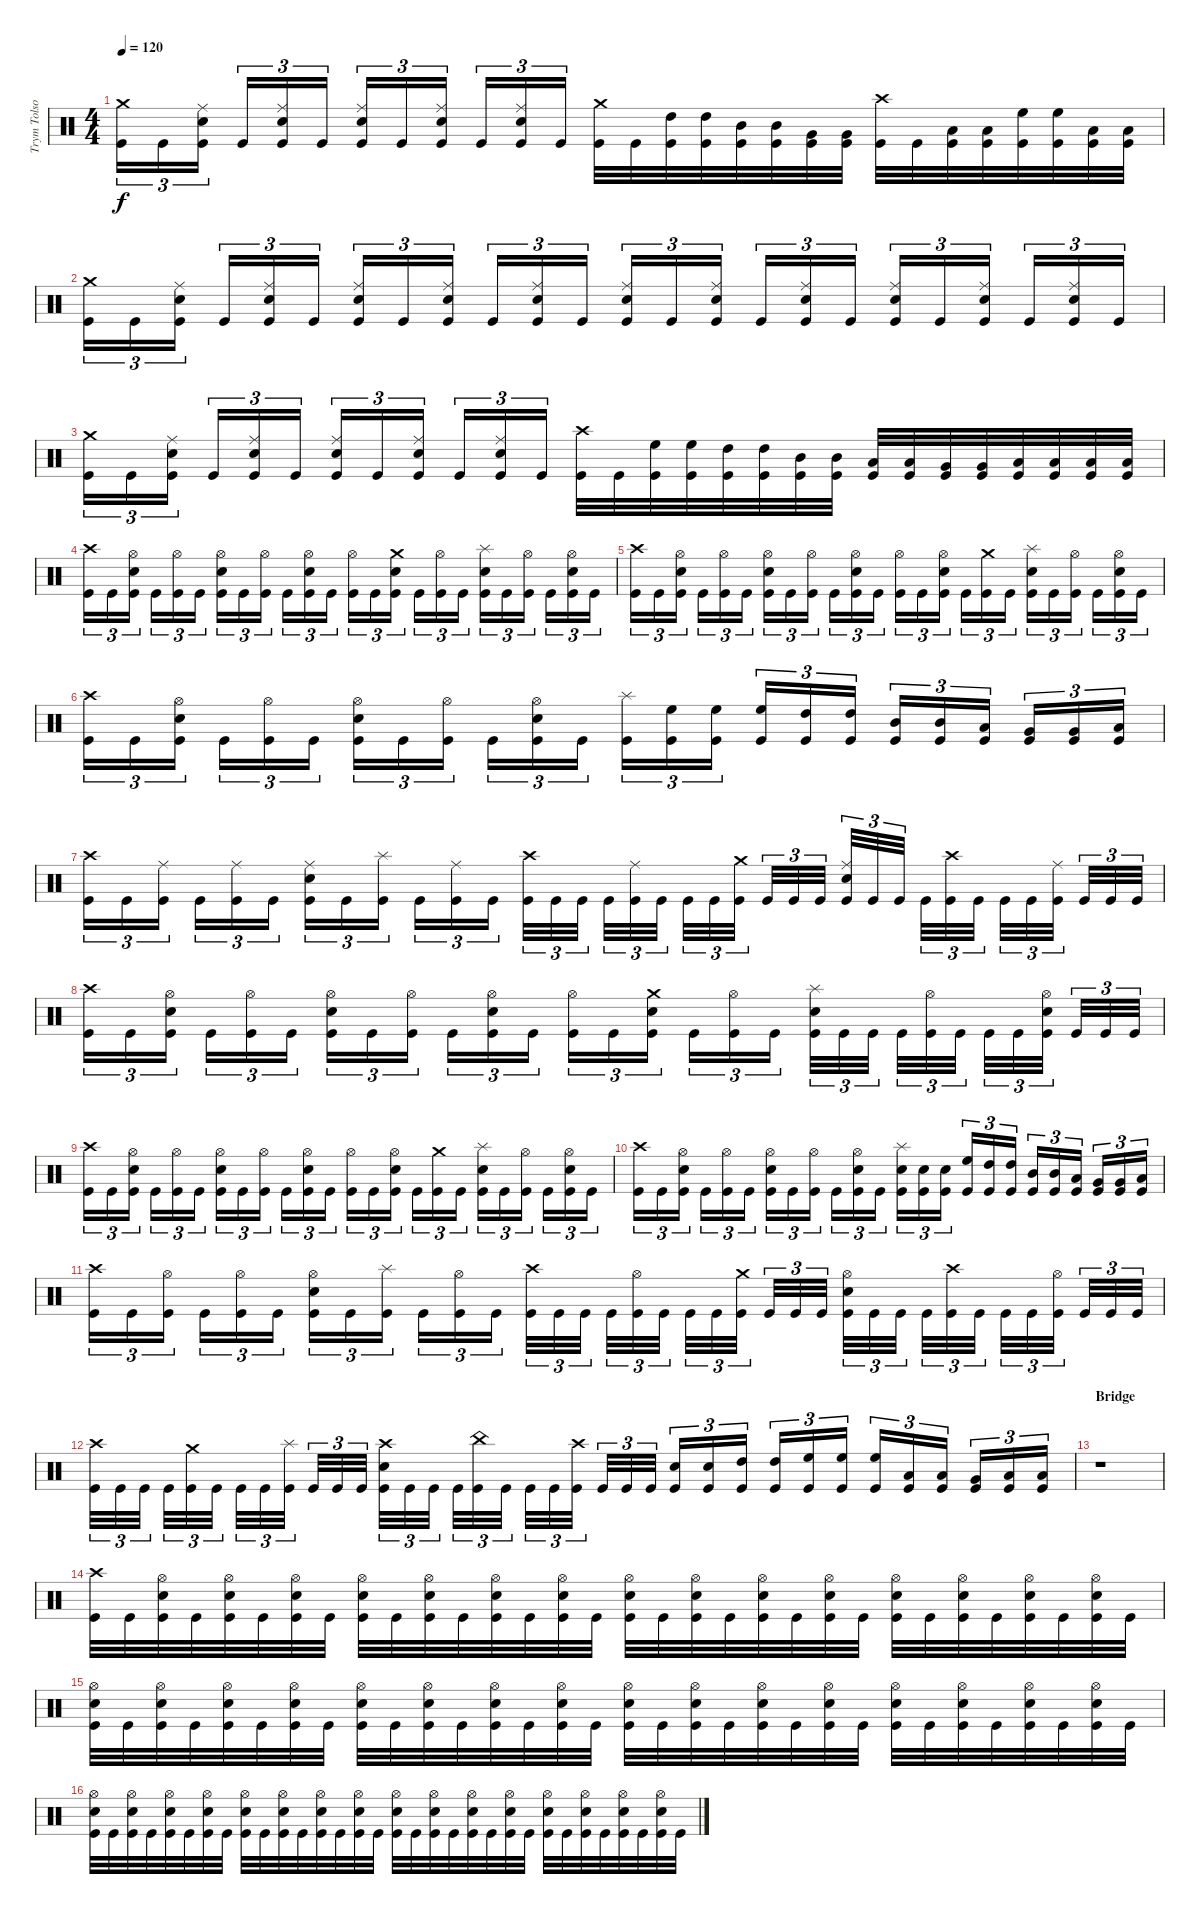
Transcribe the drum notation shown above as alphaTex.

\track ("Trym Tolson" "Trym Tolso") {instrument percussion}
\staff {score}
\articulation defaults
\ts (4 4)
\tempo 120
\clef neutral
\ks c
("Crash medium (hit)" "Kick (hit)").16{tu (3 2) dy f} "Kick (hit)".16{tu (3 2)} ("Ride (middle)" "Electric Snare (hit)" "Kick (hit)").16{tu (3 2)} "Kick (hit)".16{tu (3 2)} ("Ride (middle)" "Electric Snare (hit)" "Kick (hit)").16{tu (3 2)} "Kick (hit)".16{tu (3 2)} ("Ride (middle)" "Electric Snare (hit)" "Kick (hit)").16{tu (3 2)} "Kick (hit)".16{tu (3 2)} ("Ride (middle)" "Electric Snare (hit)" "Kick (hit)").16{tu (3 2)} "Kick (hit)".16{tu (3 2)} ("Ride (middle)" "Electric Snare (hit)" "Kick (hit)").16{tu (3 2)} "Kick (hit)".16{tu (3 2)} ("Crash medium (hit)" "Kick (hit)").32 "Kick (hit)".32 ("High Tom (hit)" "Kick (hit)").32 ("High Tom (hit)" "Kick (hit)").32 ("Mid Tom (hit)" "Kick (hit)").32 ("Mid Tom (hit)" "Kick (hit)").32 ("Very Low Tom (hit)" "Kick (hit)").32 ("Very Low Tom (hit)" "Kick (hit)").32 ("Crash high (hit)" "Kick (hit)").32 "Kick (hit)".32 ("Low Tom (hit)" "Kick (hit)").32 ("Low Tom (hit)" "Kick (hit)").32 ("High Floor Tom (hit)" "Kick (hit)").32 ("High Floor Tom (hit)" "Kick (hit)").32 ("Low Floor Tom (hit)" "Kick (hit)").32 ("Low Floor Tom (hit)" "Kick (hit)").32 |
("Crash medium (hit)" "Kick (hit)").16{tu (3 2)} "Kick (hit)".16{tu (3 2)} ("Ride (middle)" "Electric Snare (hit)" "Kick (hit)").16{tu (3 2)} "Kick (hit)".16{tu (3 2)} ("Ride (middle)" "Electric Snare (hit)" "Kick (hit)").16{tu (3 2)} "Kick (hit)".16{tu (3 2)} ("Ride (middle)" "Electric Snare (hit)" "Kick (hit)").16{tu (3 2)} "Kick (hit)".16{tu (3 2)} ("Ride (middle)" "Electric Snare (hit)" "Kick (hit)").16{tu (3 2)} "Kick (hit)".16{tu (3 2)} ("Ride (middle)" "Electric Snare (hit)" "Kick (hit)").16{tu (3 2)} "Kick (hit)".16{tu (3 2)} ("Ride (middle)" "Electric Snare (hit)" "Kick (hit)").16{tu (3 2)} "Kick (hit)".16{tu (3 2)} ("Ride (middle)" "Electric Snare (hit)" "Kick (hit)").16{tu (3 2)} "Kick (hit)".16{tu (3 2)} ("Ride (middle)" "Electric Snare (hit)" "Kick (hit)").16{tu (3 2)} "Kick (hit)".16{tu (3 2)} ("Ride (middle)" "Electric Snare (hit)" "Kick (hit)").16{tu (3 2)} "Kick (hit)".16{tu (3 2)} ("Ride (middle)" "Electric Snare (hit)" "Kick (hit)").16{tu (3 2)} "Kick (hit)".16{tu (3 2)} ("Ride (middle)" "Electric Snare (hit)" "Kick (hit)").16{tu (3 2)} "Kick (hit)".16{tu (3 2)} |
("Crash medium (hit)" "Kick (hit)").16{tu (3 2)} "Kick (hit)".16{tu (3 2)} ("Ride (middle)" "Electric Snare (hit)" "Kick (hit)").16{tu (3 2)} "Kick (hit)".16{tu (3 2)} ("Ride (middle)" "Electric Snare (hit)" "Kick (hit)").16{tu (3 2)} "Kick (hit)".16{tu (3 2)} ("Ride (middle)" "Electric Snare (hit)" "Kick (hit)").16{tu (3 2)} "Kick (hit)".16{tu (3 2)} ("Ride (middle)" "Electric Snare (hit)" "Kick (hit)").16{tu (3 2)} "Kick (hit)".16{tu (3 2)} ("Ride (middle)" "Electric Snare (hit)" "Kick (hit)").16{tu (3 2)} "Kick (hit)".16{tu (3 2)} ("Crash high (hit)" "Kick (hit)").32 "Kick (hit)".32 ("High Floor Tom (hit)" "Kick (hit)").32 ("High Floor Tom (hit)" "Kick (hit)").32 ("High Tom (hit)" "Kick (hit)").32 ("High Tom (hit)" "Kick (hit)").32 ("Mid Tom (hit)" "Kick (hit)").32 ("Mid Tom (hit)" "Kick (hit)").32 ("Low Tom (hit)" "Kick (hit)").32 ("Low Tom (hit)" "Kick (hit)").32 ("Very Low Tom (hit)" "Kick (hit)").32 ("Very Low Tom (hit)" "Kick (hit)").32 ("Low Floor Tom (hit)" "Kick (hit)").32 ("Low Floor Tom (hit)" "Kick (hit)").32 ("Low Floor Tom (hit)" "Kick (hit)").32 ("Low Floor Tom (hit)" "Kick (hit)").32 |
("Crash high (hit)" "Kick (hit)").16{tu (3 2)} "Kick (hit)".16{tu (3 2)} ("Hi-Hat (open)" "Electric Snare (hit)" "Kick (hit)").16{tu (3 2)} "Kick (hit)".16{tu (3 2)} ("Hi-Hat (open)" "Kick (hit)").16{tu (3 2)} "Kick (hit)".16{tu (3 2)} ("Hi-Hat (open)" "Electric Snare (hit)" "Kick (hit)").16{tu (3 2)} "Kick (hit)".16{tu (3 2)} ("Hi-Hat (open)" "Kick (hit)").16{tu (3 2)} "Kick (hit)".16{tu (3 2)} ("Hi-Hat (open)" "Electric Snare (hit)" "Kick (hit)").16{tu (3 2)} "Kick (hit)".16{tu (3 2)} ("Hi-Hat (open)" "Kick (hit)").16{tu (3 2)} "Kick (hit)".16{tu (3 2)} ("Crash medium (hit)" "Electric Snare (hit)" "Kick (hit)").16{tu (3 2)} "Kick (hit)".16{tu (3 2)} ("Hi-Hat (open)" "Kick (hit)").16{tu (3 2)} "Kick (hit)".16{tu (3 2)} ("Splash (hit)" "Electric Snare (hit)" "Kick (hit)").16{tu (3 2)} "Kick (hit)".16{tu (3 2)} ("Hi-Hat (open)" "Kick (hit)").16{tu (3 2)} "Kick (hit)".16{tu (3 2)} ("Hi-Hat (open)" "Electric Snare (hit)" "Kick (hit)").16{tu (3 2)} "Kick (hit)".16{tu (3 2)} |
("Crash high (hit)" "Kick (hit)").16{tu (3 2)} "Kick (hit)".16{tu (3 2)} ("Hi-Hat (open)" "Electric Snare (hit)" "Kick (hit)").16{tu (3 2)} "Kick (hit)".16{tu (3 2)} ("Hi-Hat (open)" "Kick (hit)").16{tu (3 2)} "Kick (hit)".16{tu (3 2)} ("Hi-Hat (open)" "Electric Snare (hit)" "Kick (hit)").16{tu (3 2)} "Kick (hit)".16{tu (3 2)} ("Hi-Hat (open)" "Kick (hit)").16{tu (3 2)} "Kick (hit)".16{tu (3 2)} ("Hi-Hat (open)" "Electric Snare (hit)" "Kick (hit)").16{tu (3 2)} "Kick (hit)".16{tu (3 2)} ("Hi-Hat (open)" "Kick (hit)").16{tu (3 2)} "Kick (hit)".16{tu (3 2)} ("Hi-Hat (open)" "Electric Snare (hit)" "Kick (hit)").16{tu (3 2)} "Kick (hit)".16{tu (3 2)} ("Crash medium (hit)" "Kick (hit)").16{tu (3 2)} "Kick (hit)".16{tu (3 2)} ("Splash (hit)" "Electric Snare (hit)" "Kick (hit)").16{tu (3 2)} "Kick (hit)".16{tu (3 2)} ("Hi-Hat (open)" "Kick (hit)").16{tu (3 2)} "Kick (hit)".16{tu (3 2)} ("Hi-Hat (open)" "Electric Snare (hit)" "Kick (hit)").16{tu (3 2)} "Kick (hit)".16{tu (3 2)} |
("Crash high (hit)" "Kick (hit)").16{tu (3 2)} "Kick (hit)".16{tu (3 2)} ("Hi-Hat (open)" "Electric Snare (hit)" "Kick (hit)").16{tu (3 2)} "Kick (hit)".16{tu (3 2)} ("Hi-Hat (open)" "Kick (hit)").16{tu (3 2)} "Kick (hit)".16{tu (3 2)} ("Hi-Hat (open)" "Electric Snare (hit)" "Kick (hit)").16{tu (3 2)} "Kick (hit)".16{tu (3 2)} ("Hi-Hat (open)" "Kick (hit)").16{tu (3 2)} "Kick (hit)".16{tu (3 2)} ("Hi-Hat (open)" "Electric Snare (hit)" "Kick (hit)").16{tu (3 2)} "Kick (hit)".16{tu (3 2)} ("Splash (hit)" "Kick (hit)").16{tu (3 2)} ("High Floor Tom (hit)" "Kick (hit)").16{tu (3 2)} ("High Floor Tom (hit)" "Kick (hit)").16{tu (3 2)} ("High Floor Tom (hit)" "Kick (hit)").16{tu (3 2)} ("High Tom (hit)" "Kick (hit)").16{tu (3 2)} ("High Tom (hit)" "Kick (hit)").16{tu (3 2)} ("Mid Tom (hit)" "Kick (hit)").16{tu (3 2)} ("Mid Tom (hit)" "Kick (hit)").16{tu (3 2)} ("Low Tom (hit)" "Kick (hit)").16{tu (3 2)} ("Very Low Tom (hit)" "Kick (hit)").16{tu (3 2)} ("Very Low Tom (hit)" "Kick (hit)").16{tu (3 2)} ("Low Floor Tom (hit)" "Kick (hit)").16{tu (3 2)} |
("Crash high (hit)" "Kick (hit)").16{tu (3 2)} "Kick (hit)".16{tu (3 2)} ("Ride (middle)" "Kick (hit)").16{tu (3 2)} "Kick (hit)".16{tu (3 2)} ("Ride (middle)" "Kick (hit)").16{tu (3 2)} "Kick (hit)".16{tu (3 2)} ("Ride (middle)" "Electric Snare (hit)" "Kick (hit)").16{tu (3 2)} "Kick (hit)".16{tu (3 2)} ("Splash (hit)" "Kick (hit)").16{tu (3 2)} "Kick (hit)".16{tu (3 2)} ("Ride (middle)" "Kick (hit)").16{tu (3 2)} "Kick (hit)".16{tu (3 2)} ("Crash high (hit)" "Kick (hit)").32{tu (3 2)} "Kick (hit)".32{tu (3 2)} "Kick (hit)".32{tu (3 2)} "Kick (hit)".32{tu (3 2)} ("Ride (middle)" "Kick (hit)").32{tu (3 2)} "Kick (hit)".32{tu (3 2)} "Kick (hit)".32{tu (3 2)} "Kick (hit)".32{tu (3 2)} ("Crash medium (hit)" "Kick (hit)").32{tu (3 2)} "Kick (hit)".32{tu (3 2)} "Kick (hit)".32{tu (3 2)} "Kick (hit)".32{tu (3 2)} ("Ride (middle)" "Electric Snare (hit)" "Kick (hit)").32{tu (3 2)} "Kick (hit)".32{tu (3 2)} "Kick (hit)".32{tu (3 2)} "Kick (hit)".32{tu (3 2)} ("Crash high (hit)" "Kick (hit)").32{tu (3 2)} "Kick (hit)".32{tu (3 2)} "Kick (hit)".32{tu (3 2)} "Kick (hit)".32{tu (3 2)} ("Ride (middle)" "Kick (hit)").32{tu (3 2)} "Kick (hit)".32{tu (3 2)} "Kick (hit)".32{tu (3 2)} "Kick (hit)".32{tu (3 2)} |
("Crash high (hit)" "Kick (hit)").16{tu (3 2)} "Kick (hit)".16{tu (3 2)} ("Hi-Hat (open)" "Electric Snare (hit)" "Kick (hit)").16{tu (3 2)} "Kick (hit)".16{tu (3 2)} ("Hi-Hat (open)" "Kick (hit)").16{tu (3 2)} "Kick (hit)".16{tu (3 2)} ("Hi-Hat (open)" "Electric Snare (hit)" "Kick (hit)").16{tu (3 2)} "Kick (hit)".16{tu (3 2)} ("Hi-Hat (open)" "Kick (hit)").16{tu (3 2)} "Kick (hit)".16{tu (3 2)} ("Hi-Hat (open)" "Electric Snare (hit)" "Kick (hit)").16{tu (3 2)} "Kick (hit)".16{tu (3 2)} ("Hi-Hat (open)" "Kick (hit)").16{tu (3 2)} "Kick (hit)".16{tu (3 2)} ("Crash medium (hit)" "Electric Snare (hit)" "Kick (hit)").16{tu (3 2)} "Kick (hit)".16{tu (3 2)} ("Hi-Hat (open)" "Kick (hit)").16{tu (3 2)} "Kick (hit)".16{tu (3 2)} ("Splash (hit)" "Electric Snare (hit)" "Kick (hit)").32{tu (3 2)} "Kick (hit)".32{tu (3 2)} "Kick (hit)".32{tu (3 2)} "Kick (hit)".32{tu (3 2)} ("Hi-Hat (open)" "Kick (hit)").32{tu (3 2)} "Kick (hit)".32{tu (3 2)} "Kick (hit)".32{tu (3 2)} "Kick (hit)".32{tu (3 2)} ("Hi-Hat (open)" "Electric Snare (hit)" "Kick (hit)").32{tu (3 2)} "Kick (hit)".32{tu (3 2)} "Kick (hit)".32{tu (3 2)} "Kick (hit)".32{tu (3 2)} |
("Crash high (hit)" "Kick (hit)").16{tu (3 2)} "Kick (hit)".16{tu (3 2)} ("Hi-Hat (open)" "Electric Snare (hit)" "Kick (hit)").16{tu (3 2)} "Kick (hit)".16{tu (3 2)} ("Hi-Hat (open)" "Kick (hit)").16{tu (3 2)} "Kick (hit)".16{tu (3 2)} ("Hi-Hat (open)" "Electric Snare (hit)" "Kick (hit)").16{tu (3 2)} "Kick (hit)".16{tu (3 2)} ("Hi-Hat (open)" "Kick (hit)").16{tu (3 2)} "Kick (hit)".16{tu (3 2)} ("Hi-Hat (open)" "Electric Snare (hit)" "Kick (hit)").16{tu (3 2)} "Kick (hit)".16{tu (3 2)} ("Hi-Hat (open)" "Kick (hit)").16{tu (3 2)} "Kick (hit)".16{tu (3 2)} ("Hi-Hat (open)" "Electric Snare (hit)" "Kick (hit)").16{tu (3 2)} "Kick (hit)".16{tu (3 2)} ("Crash medium (hit)" "Kick (hit)").16{tu (3 2)} "Kick (hit)".16{tu (3 2)} ("Splash (hit)" "Electric Snare (hit)" "Kick (hit)").16{tu (3 2)} "Kick (hit)".16{tu (3 2)} ("Hi-Hat (open)" "Kick (hit)").16{tu (3 2)} "Kick (hit)".16{tu (3 2)} ("Hi-Hat (open)" "Electric Snare (hit)" "Kick (hit)").16{tu (3 2)} "Kick (hit)".16{tu (3 2)} |
("Crash high (hit)" "Kick (hit)").16{tu (3 2)} "Kick (hit)".16{tu (3 2)} ("Hi-Hat (open)" "Electric Snare (hit)" "Kick (hit)").16{tu (3 2)} "Kick (hit)".16{tu (3 2)} ("Hi-Hat (open)" "Kick (hit)").16{tu (3 2)} "Kick (hit)".16{tu (3 2)} ("Hi-Hat (open)" "Electric Snare (hit)" "Kick (hit)").16{tu (3 2)} "Kick (hit)".16{tu (3 2)} ("Hi-Hat (open)" "Kick (hit)").16{tu (3 2)} "Kick (hit)".16{tu (3 2)} ("Hi-Hat (open)" "Electric Snare (hit)" "Kick (hit)").16{tu (3 2)} "Kick (hit)".16{tu (3 2)} ("Splash (hit)" "Electric Snare (hit)" "Kick (hit)").16{tu (3 2)} ("Electric Snare (hit)" "Kick (hit)").16{tu (3 2)} ("Electric Snare (hit)" "Kick (hit)").16{tu (3 2)} ("High Floor Tom (hit)" "Kick (hit)").16{tu (3 2)} ("High Tom (hit)" "Kick (hit)").16{tu (3 2)} ("High Tom (hit)" "Kick (hit)").16{tu (3 2)} ("Mid Tom (hit)" "Kick (hit)").16{tu (3 2)} ("Mid Tom (hit)" "Kick (hit)").16{tu (3 2)} ("Low Tom (hit)" "Kick (hit)").16{tu (3 2)} ("Very Low Tom (hit)" "Kick (hit)").16{tu (3 2)} ("Very Low Tom (hit)" "Kick (hit)").16{tu (3 2)} ("Low Floor Tom (hit)" "Kick (hit)").16{tu (3 2)} |
("Crash high (hit)" "Kick (hit)").16{tu (3 2)} "Kick (hit)".16{tu (3 2)} ("Hi-Hat (open)" "Kick (hit)").16{tu (3 2)} "Kick (hit)".16{tu (3 2)} ("Hi-Hat (open)" "Kick (hit)").16{tu (3 2)} "Kick (hit)".16{tu (3 2)} ("Hi-Hat (open)" "Electric Snare (hit)" "Kick (hit)").16{tu (3 2)} "Kick (hit)".16{tu (3 2)} ("Splash (hit)" "Kick (hit)").16{tu (3 2)} "Kick (hit)".16{tu (3 2)} ("Hi-Hat (open)" "Kick (hit)").16{tu (3 2)} "Kick (hit)".16{tu (3 2)} ("Crash high (hit)" "Kick (hit)").32{tu (3 2)} "Kick (hit)".32{tu (3 2)} "Kick (hit)".32{tu (3 2)} "Kick (hit)".32{tu (3 2)} ("Hi-Hat (open)" "Kick (hit)").32{tu (3 2)} "Kick (hit)".32{tu (3 2)} "Kick (hit)".32{tu (3 2)} "Kick (hit)".32{tu (3 2)} ("Crash medium (hit)" "Kick (hit)").32{tu (3 2)} "Kick (hit)".32{tu (3 2)} "Kick (hit)".32{tu (3 2)} "Kick (hit)".32{tu (3 2)} ("Hi-Hat (open)" "Electric Snare (hit)" "Kick (hit)").32{tu (3 2)} "Kick (hit)".32{tu (3 2)} "Kick (hit)".32{tu (3 2)} "Kick (hit)".32{tu (3 2)} ("Crash high (hit)" "Kick (hit)").32{tu (3 2)} "Kick (hit)".32{tu (3 2)} "Kick (hit)".32{tu (3 2)} "Kick (hit)".32{tu (3 2)} ("Hi-Hat (open)" "Kick (hit)").32{tu (3 2)} "Kick (hit)".32{tu (3 2)} "Kick (hit)".32{tu (3 2)} "Kick (hit)".32{tu (3 2)} |
("Crash high (hit)" "Kick (hit)").32{tu (3 2)} "Kick (hit)".32{tu (3 2)} "Kick (hit)".32{tu (3 2)} "Kick (hit)".32{tu (3 2)} ("Crash medium (hit)" "Kick (hit)").32{tu (3 2)} "Kick (hit)".32{tu (3 2)} "Kick (hit)".32{tu (3 2)} "Kick (hit)".32{tu (3 2)} ("Splash (hit)" "Kick (hit)").32{tu (3 2)} "Kick (hit)".32{tu (3 2)} "Kick (hit)".32{tu (3 2)} "Kick (hit)".32{tu (3 2)} ("Crash high (hit)" "Electric Snare (hit)" "Kick (hit)").32{tu (3 2)} "Kick (hit)".32{tu (3 2)} "Kick (hit)".32{tu (3 2)} "Kick (hit)".32{tu (3 2)} ("China (hit)" "Kick (hit)").32{tu (3 2)} "Kick (hit)".32{tu (3 2)} "Kick (hit)".32{tu (3 2)} "Kick (hit)".32{tu (3 2)} ("Crash high (hit)" "Kick (hit)").32{tu (3 2)} "Kick (hit)".32{tu (3 2)} "Kick (hit)".32{tu (3 2)} "Kick (hit)".32{tu (3 2)} ("Electric Snare (hit)" "Kick (hit)").16{tu (3 2)} ("Electric Snare (hit)" "Kick (hit)").16{tu (3 2)} ("High Tom (hit)" "Kick (hit)").16{tu (3 2)} ("High Tom (hit)" "Kick (hit)").16{tu (3 2)} ("High Floor Tom (hit)" "Kick (hit)").16{tu (3 2)} ("High Floor Tom (hit)" "Kick (hit)").16{tu (3 2)} ("High Floor Tom (hit)" "Kick (hit)").16{tu (3 2)} ("Low Tom (hit)" "Kick (hit)").16{tu (3 2)} ("Low Tom (hit)" "Kick (hit)").16{tu (3 2)} ("Very Low Tom (hit)" "Kick (hit)").16{tu (3 2)} ("Low Floor Tom (hit)" "Kick (hit)").16{tu (3 2)} ("Low Floor Tom (hit)" "Kick (hit)").16{tu (3 2)} |
\section ("" "Bridge")
r.1 |
("Crash high (hit)" "Kick (hit)").32 "Kick (hit)".32 ("Hi-Hat (open)" "Electric Snare (hit)" "Kick (hit)").32 "Kick (hit)".32 ("Hi-Hat (open)" "Electric Snare (hit)" "Kick (hit)").32 "Kick (hit)".32 ("Hi-Hat (open)" "Electric Snare (hit)" "Kick (hit)").32 "Kick (hit)".32 ("Hi-Hat (open)" "Electric Snare (hit)" "Kick (hit)").32 "Kick (hit)".32 ("Hi-Hat (open)" "Electric Snare (hit)" "Kick (hit)").32 "Kick (hit)".32 ("Hi-Hat (open)" "Electric Snare (hit)" "Kick (hit)").32 "Kick (hit)".32 ("Hi-Hat (open)" "Electric Snare (hit)" "Kick (hit)").32 "Kick (hit)".32 ("Hi-Hat (open)" "Electric Snare (hit)" "Kick (hit)").32 "Kick (hit)".32 ("Hi-Hat (open)" "Electric Snare (hit)" "Kick (hit)").32 "Kick (hit)".32 ("Hi-Hat (open)" "Electric Snare (hit)" "Kick (hit)").32 "Kick (hit)".32 ("Hi-Hat (open)" "Electric Snare (hit)" "Kick (hit)").32 "Kick (hit)".32 ("Hi-Hat (open)" "Electric Snare (hit)" "Kick (hit)").32 "Kick (hit)".32 ("Hi-Hat (open)" "Electric Snare (hit)" "Kick (hit)").32 "Kick (hit)".32 ("Hi-Hat (open)" "Electric Snare (hit)" "Kick (hit)").32 "Kick (hit)".32 ("Hi-Hat (open)" "Electric Snare (hit)" "Kick (hit)").32 "Kick (hit)".32 |
("Hi-Hat (open)" "Electric Snare (hit)" "Kick (hit)").32 "Kick (hit)".32 ("Hi-Hat (open)" "Electric Snare (hit)" "Kick (hit)").32 "Kick (hit)".32 ("Hi-Hat (open)" "Electric Snare (hit)" "Kick (hit)").32 "Kick (hit)".32 ("Hi-Hat (open)" "Electric Snare (hit)" "Kick (hit)").32 "Kick (hit)".32 ("Hi-Hat (open)" "Electric Snare (hit)" "Kick (hit)").32 "Kick (hit)".32 ("Hi-Hat (open)" "Electric Snare (hit)" "Kick (hit)").32 "Kick (hit)".32 ("Hi-Hat (open)" "Electric Snare (hit)" "Kick (hit)").32 "Kick (hit)".32 ("Hi-Hat (open)" "Electric Snare (hit)" "Kick (hit)").32 "Kick (hit)".32 ("Hi-Hat (open)" "Electric Snare (hit)" "Kick (hit)").32 "Kick (hit)".32 ("Hi-Hat (open)" "Electric Snare (hit)" "Kick (hit)").32 "Kick (hit)".32 ("Hi-Hat (open)" "Electric Snare (hit)" "Kick (hit)").32 "Kick (hit)".32 ("Hi-Hat (open)" "Electric Snare (hit)" "Kick (hit)").32 "Kick (hit)".32 ("Hi-Hat (open)" "Electric Snare (hit)" "Kick (hit)").32 "Kick (hit)".32 ("Hi-Hat (open)" "Electric Snare (hit)" "Kick (hit)").32 "Kick (hit)".32 ("Hi-Hat (open)" "Electric Snare (hit)" "Kick (hit)").32 "Kick (hit)".32 ("Hi-Hat (open)" "Electric Snare (hit)" "Kick (hit)").32 "Kick (hit)".32 |
("Hi-Hat (open)" "Electric Snare (hit)" "Kick (hit)").32 "Kick (hit)".32 ("Hi-Hat (open)" "Electric Snare (hit)" "Kick (hit)").32 "Kick (hit)".32 ("Hi-Hat (open)" "Electric Snare (hit)" "Kick (hit)").32 "Kick (hit)".32 ("Hi-Hat (open)" "Electric Snare (hit)" "Kick (hit)").32 "Kick (hit)".32 ("Hi-Hat (open)" "Electric Snare (hit)" "Kick (hit)").32 "Kick (hit)".32 ("Hi-Hat (open)" "Electric Snare (hit)" "Kick (hit)").32 "Kick (hit)".32 ("Hi-Hat (open)" "Electric Snare (hit)" "Kick (hit)").32 "Kick (hit)".32 ("Hi-Hat (open)" "Electric Snare (hit)" "Kick (hit)").32 "Kick (hit)".32 ("Hi-Hat (open)" "Electric Snare (hit)" "Kick (hit)").32 "Kick (hit)".32 ("Hi-Hat (open)" "Electric Snare (hit)" "Kick (hit)").32 "Kick (hit)".32 ("Hi-Hat (open)" "Electric Snare (hit)" "Kick (hit)").32 "Kick (hit)".32 ("Hi-Hat (open)" "Electric Snare (hit)" "Kick (hit)").32 "Kick (hit)".32 ("Hi-Hat (open)" "Electric Snare (hit)" "Kick (hit)").32 "Kick (hit)".32 ("Hi-Hat (open)" "Electric Snare (hit)" "Kick (hit)").32 "Kick (hit)".32 ("Hi-Hat (open)" "Electric Snare (hit)" "Kick (hit)").32 "Kick (hit)".32 ("Hi-Hat (open)" "Electric Snare (hit)" "Kick (hit)").32 "Kick (hit)".32
